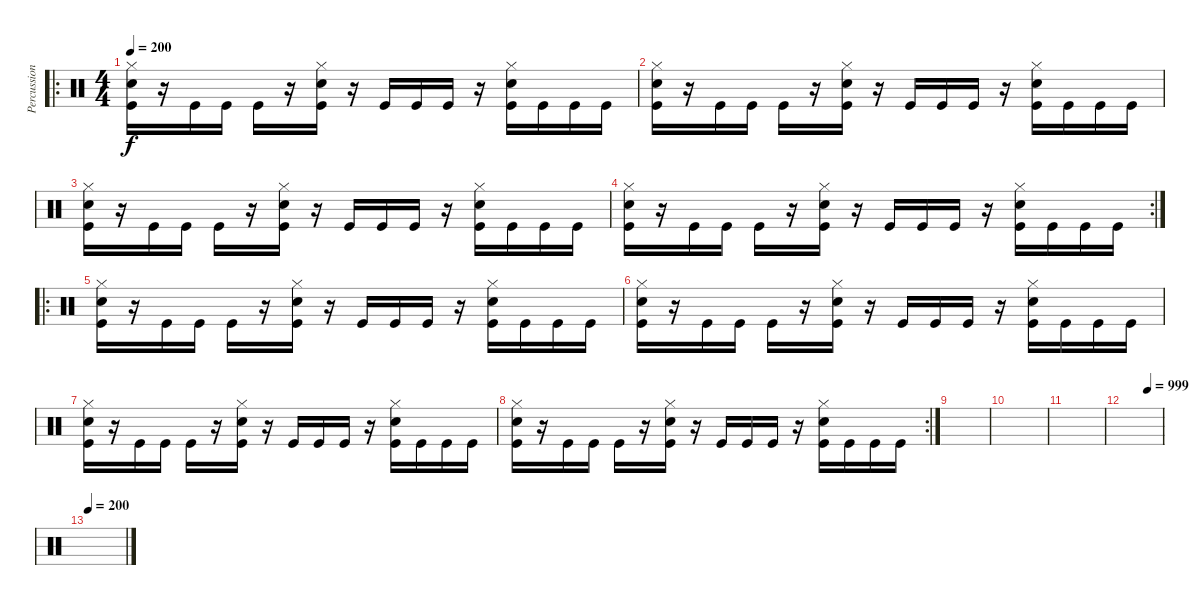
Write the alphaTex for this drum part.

\track ("Percussion" "Percussion") {instrument percussion}
\staff {score}
\articulation defaults
\ro
\ts (4 4)
\tempo 200
\clef neutral
\ks c
("Kick (hit)" "Snare (hit) 2" "Hi-Hat (closed)").16{dy f} r.16 "Kick (hit)".16 "Kick (hit)".16 "Kick (hit)".16 r.16 ("Kick (hit)" "Snare (hit) 2" "Hi-Hat (closed)").16 r.16 "Kick (hit)".16 "Kick (hit)".16 "Kick (hit)".16 r.16 ("Kick (hit)" "Snare (hit) 2" "Hi-Hat (closed)").16 "Kick (hit)".16 "Kick (hit)".16 "Kick (hit)".16 |
("Kick (hit)" "Snare (hit) 2" "Hi-Hat (closed)").16 r.16 "Kick (hit)".16 "Kick (hit)".16 "Kick (hit)".16 r.16 ("Kick (hit)" "Snare (hit) 2" "Hi-Hat (closed)").16 r.16 "Kick (hit)".16 "Kick (hit)".16 "Kick (hit)".16 r.16 ("Kick (hit)" "Snare (hit) 2" "Hi-Hat (closed)").16 "Kick (hit)".16 "Kick (hit)".16 "Kick (hit)".16 |
("Kick (hit)" "Snare (hit) 2" "Hi-Hat (closed)").16 r.16 "Kick (hit)".16 "Kick (hit)".16 "Kick (hit)".16 r.16 ("Kick (hit)" "Snare (hit) 2" "Hi-Hat (closed)").16 r.16 "Kick (hit)".16 "Kick (hit)".16 "Kick (hit)".16 r.16 ("Kick (hit)" "Snare (hit) 2" "Hi-Hat (closed)").16 "Kick (hit)".16 "Kick (hit)".16 "Kick (hit)".16 |
\rc 2
("Kick (hit)" "Snare (hit) 2" "Hi-Hat (closed)").16 r.16 "Kick (hit)".16 "Kick (hit)".16 "Kick (hit)".16 r.16 ("Kick (hit)" "Snare (hit) 2" "Hi-Hat (closed)").16 r.16 "Kick (hit)".16 "Kick (hit)".16 "Kick (hit)".16 r.16 ("Kick (hit)" "Snare (hit) 2" "Hi-Hat (closed)").16 "Kick (hit)".16 "Kick (hit)".16 "Kick (hit)".16 |
\ro
("Kick (hit)" "Snare (hit) 2" "Hi-Hat (closed)").16 r.16 "Kick (hit)".16 "Kick (hit)".16 "Kick (hit)".16 r.16 ("Kick (hit)" "Snare (hit) 2" "Hi-Hat (closed)").16 r.16 "Kick (hit)".16 "Kick (hit)".16 "Kick (hit)".16 r.16 ("Kick (hit)" "Snare (hit) 2" "Hi-Hat (closed)").16 "Kick (hit)".16 "Kick (hit)".16 "Kick (hit)".16 |
("Kick (hit)" "Snare (hit) 2" "Hi-Hat (closed)").16 r.16 "Kick (hit)".16 "Kick (hit)".16 "Kick (hit)".16 r.16 ("Kick (hit)" "Snare (hit) 2" "Hi-Hat (closed)").16 r.16 "Kick (hit)".16 "Kick (hit)".16 "Kick (hit)".16 r.16 ("Kick (hit)" "Snare (hit) 2" "Hi-Hat (closed)").16 "Kick (hit)".16 "Kick (hit)".16 "Kick (hit)".16 |
("Kick (hit)" "Snare (hit) 2" "Hi-Hat (closed)").16 r.16 "Kick (hit)".16 "Kick (hit)".16 "Kick (hit)".16 r.16 ("Kick (hit)" "Snare (hit) 2" "Hi-Hat (closed)").16 r.16 "Kick (hit)".16 "Kick (hit)".16 "Kick (hit)".16 r.16 ("Kick (hit)" "Snare (hit) 2" "Hi-Hat (closed)").16 "Kick (hit)".16 "Kick (hit)".16 "Kick (hit)".16 |
\rc 2
("Kick (hit)" "Snare (hit) 2" "Hi-Hat (closed)").16 r.16 "Kick (hit)".16 "Kick (hit)".16 "Kick (hit)".16 r.16 ("Kick (hit)" "Snare (hit) 2" "Hi-Hat (closed)").16 r.16 "Kick (hit)".16 "Kick (hit)".16 "Kick (hit)".16 r.16 ("Kick (hit)" "Snare (hit) 2" "Hi-Hat (closed)").16 "Kick (hit)".16 "Kick (hit)".16 "Kick (hit)".16 |
|
|
|
\tempo (999 0.625)
|
\tempo 200
